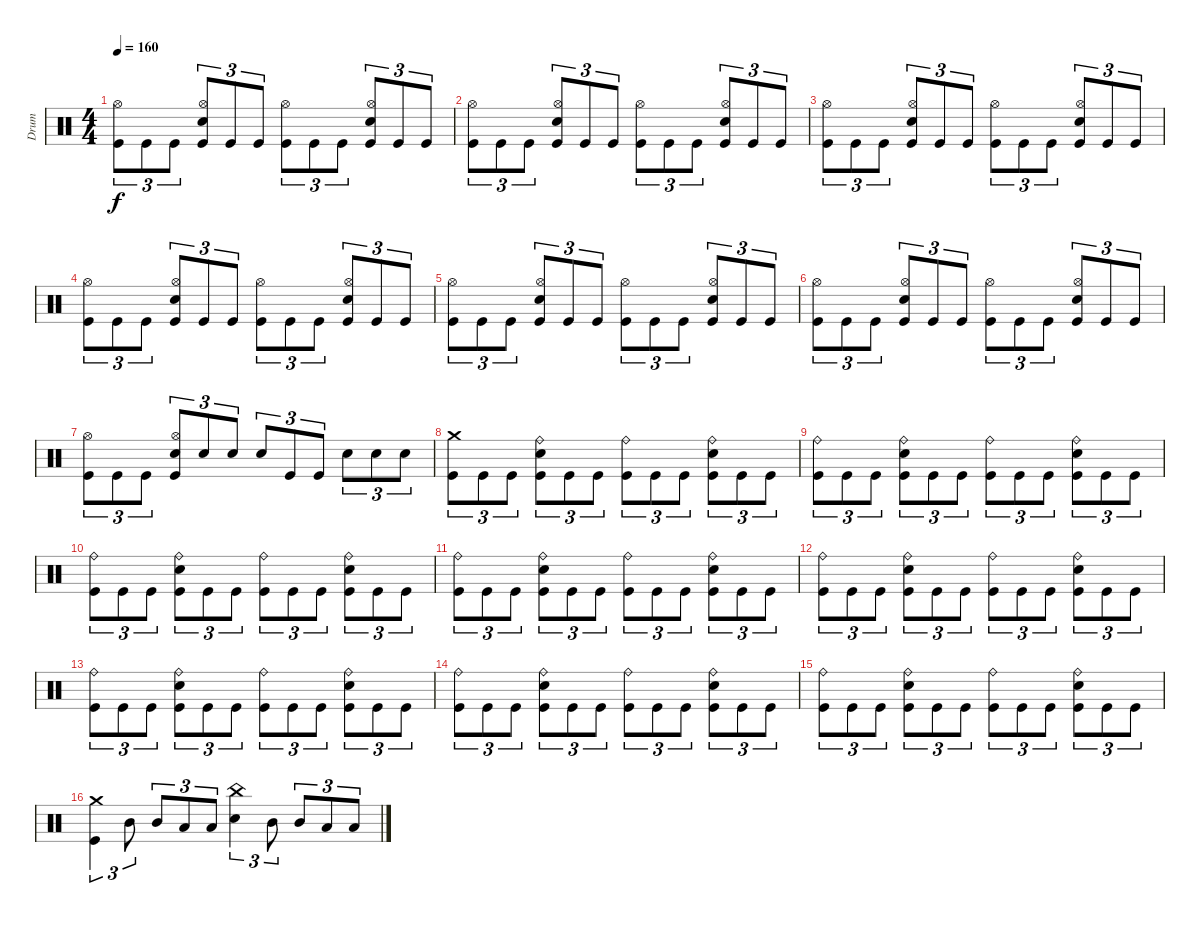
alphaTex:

\track ("Drum" "Drum") {instrument percussion}
\staff {score}
\articulation defaults
\ts (4 4)
\tempo 160
\clef neutral
\ks c
("Kick (hit)" "Hi-Hat (open)").8{tu (3 2) dy f} "Kick (hit)".8{tu (3 2)} "Kick (hit)".8{tu (3 2)} ("Kick (hit)" "Electric Snare (hit)" "Hi-Hat (open)").8{tu (3 2)} "Kick (hit)".8{tu (3 2)} "Kick (hit)".8{tu (3 2)} ("Kick (hit)" "Hi-Hat (open)").8{tu (3 2)} "Kick (hit)".8{tu (3 2)} "Kick (hit)".8{tu (3 2)} ("Kick (hit)" "Electric Snare (hit)" "Hi-Hat (open)").8{tu (3 2)} "Kick (hit)".8{tu (3 2)} "Kick (hit)".8{tu (3 2)} |
("Kick (hit)" "Hi-Hat (open)").8{tu (3 2)} "Kick (hit)".8{tu (3 2)} "Kick (hit)".8{tu (3 2)} ("Kick (hit)" "Electric Snare (hit)" "Hi-Hat (open)").8{tu (3 2)} "Kick (hit)".8{tu (3 2)} "Kick (hit)".8{tu (3 2)} ("Kick (hit)" "Hi-Hat (open)").8{tu (3 2)} "Kick (hit)".8{tu (3 2)} "Kick (hit)".8{tu (3 2)} ("Kick (hit)" "Electric Snare (hit)" "Hi-Hat (open)").8{tu (3 2)} "Kick (hit)".8{tu (3 2)} "Kick (hit)".8{tu (3 2)} |
("Kick (hit)" "Hi-Hat (open)").8{tu (3 2)} "Kick (hit)".8{tu (3 2)} "Kick (hit)".8{tu (3 2)} ("Kick (hit)" "Electric Snare (hit)" "Hi-Hat (open)").8{tu (3 2)} "Kick (hit)".8{tu (3 2)} "Kick (hit)".8{tu (3 2)} ("Kick (hit)" "Hi-Hat (open)").8{tu (3 2)} "Kick (hit)".8{tu (3 2)} "Kick (hit)".8{tu (3 2)} ("Kick (hit)" "Electric Snare (hit)" "Hi-Hat (open)").8{tu (3 2)} "Kick (hit)".8{tu (3 2)} "Kick (hit)".8{tu (3 2)} |
("Kick (hit)" "Hi-Hat (open)").8{tu (3 2)} "Kick (hit)".8{tu (3 2)} "Kick (hit)".8{tu (3 2)} ("Kick (hit)" "Electric Snare (hit)" "Hi-Hat (open)").8{tu (3 2)} "Kick (hit)".8{tu (3 2)} "Kick (hit)".8{tu (3 2)} ("Kick (hit)" "Hi-Hat (open)").8{tu (3 2)} "Kick (hit)".8{tu (3 2)} "Kick (hit)".8{tu (3 2)} ("Kick (hit)" "Electric Snare (hit)" "Hi-Hat (open)").8{tu (3 2)} "Kick (hit)".8{tu (3 2)} "Kick (hit)".8{tu (3 2)} |
("Kick (hit)" "Hi-Hat (open)").8{tu (3 2)} "Kick (hit)".8{tu (3 2)} "Kick (hit)".8{tu (3 2)} ("Kick (hit)" "Electric Snare (hit)" "Hi-Hat (open)").8{tu (3 2)} "Kick (hit)".8{tu (3 2)} "Kick (hit)".8{tu (3 2)} ("Kick (hit)" "Hi-Hat (open)").8{tu (3 2)} "Kick (hit)".8{tu (3 2)} "Kick (hit)".8{tu (3 2)} ("Kick (hit)" "Electric Snare (hit)" "Hi-Hat (open)").8{tu (3 2)} "Kick (hit)".8{tu (3 2)} "Kick (hit)".8{tu (3 2)} |
("Kick (hit)" "Hi-Hat (open)").8{tu (3 2)} "Kick (hit)".8{tu (3 2)} "Kick (hit)".8{tu (3 2)} ("Kick (hit)" "Electric Snare (hit)" "Hi-Hat (open)").8{tu (3 2)} "Kick (hit)".8{tu (3 2)} "Kick (hit)".8{tu (3 2)} ("Kick (hit)" "Hi-Hat (open)").8{tu (3 2)} "Kick (hit)".8{tu (3 2)} "Kick (hit)".8{tu (3 2)} ("Kick (hit)" "Electric Snare (hit)" "Hi-Hat (open)").8{tu (3 2)} "Kick (hit)".8{tu (3 2)} "Kick (hit)".8{tu (3 2)} |
("Kick (hit)" "Hi-Hat (open)").8{tu (3 2)} "Kick (hit)".8{tu (3 2)} "Kick (hit)".8{tu (3 2)} ("Kick (hit)" "Electric Snare (hit)" "Hi-Hat (open)").8{tu (3 2)} "Electric Snare (hit)".8{tu (3 2)} "Electric Snare (hit)".8{tu (3 2)} "Electric Snare (hit)".8{tu (3 2)} "Kick (hit)".8{tu (3 2)} "Kick (hit)".8{tu (3 2)} "Electric Snare (hit)".8{tu (3 2)} "Electric Snare (hit)".8{tu (3 2)} "Electric Snare (hit)".8{tu (3 2)} |
("Kick (hit)" "Crash medium (hit)").8{tu (3 2)} "Kick (hit)".8{tu (3 2)} "Kick (hit)".8{tu (3 2)} ("Kick (hit)" "Electric Snare (hit)" "Ride (bell)").8{tu (3 2)} "Kick (hit)".8{tu (3 2)} "Kick (hit)".8{tu (3 2)} ("Kick (hit)" "Ride (bell)").8{tu (3 2)} "Kick (hit)".8{tu (3 2)} "Kick (hit)".8{tu (3 2)} ("Kick (hit)" "Electric Snare (hit)" "Ride (bell)").8{tu (3 2)} "Kick (hit)".8{tu (3 2)} "Kick (hit)".8{tu (3 2)} |
("Kick (hit)" "Ride (bell)").8{tu (3 2)} "Kick (hit)".8{tu (3 2)} "Kick (hit)".8{tu (3 2)} ("Kick (hit)" "Electric Snare (hit)" "Ride (bell)").8{tu (3 2)} "Kick (hit)".8{tu (3 2)} "Kick (hit)".8{tu (3 2)} ("Kick (hit)" "Ride (bell)").8{tu (3 2)} "Kick (hit)".8{tu (3 2)} "Kick (hit)".8{tu (3 2)} ("Kick (hit)" "Electric Snare (hit)" "Ride (bell)").8{tu (3 2)} "Kick (hit)".8{tu (3 2)} "Kick (hit)".8{tu (3 2)} |
("Kick (hit)" "Ride (bell)").8{tu (3 2)} "Kick (hit)".8{tu (3 2)} "Kick (hit)".8{tu (3 2)} ("Kick (hit)" "Electric Snare (hit)" "Ride (bell)").8{tu (3 2)} "Kick (hit)".8{tu (3 2)} "Kick (hit)".8{tu (3 2)} ("Kick (hit)" "Ride (bell)").8{tu (3 2)} "Kick (hit)".8{tu (3 2)} "Kick (hit)".8{tu (3 2)} ("Kick (hit)" "Electric Snare (hit)" "Ride (bell)").8{tu (3 2)} "Kick (hit)".8{tu (3 2)} "Kick (hit)".8{tu (3 2)} |
("Kick (hit)" "Ride (bell)").8{tu (3 2)} "Kick (hit)".8{tu (3 2)} "Kick (hit)".8{tu (3 2)} ("Kick (hit)" "Electric Snare (hit)" "Ride (bell)").8{tu (3 2)} "Kick (hit)".8{tu (3 2)} "Kick (hit)".8{tu (3 2)} ("Kick (hit)" "Ride (bell)").8{tu (3 2)} "Kick (hit)".8{tu (3 2)} "Kick (hit)".8{tu (3 2)} ("Kick (hit)" "Electric Snare (hit)" "Ride (bell)").8{tu (3 2)} "Kick (hit)".8{tu (3 2)} "Kick (hit)".8{tu (3 2)} |
("Kick (hit)" "Ride (bell)").8{tu (3 2)} "Kick (hit)".8{tu (3 2)} "Kick (hit)".8{tu (3 2)} ("Kick (hit)" "Electric Snare (hit)" "Ride (bell)").8{tu (3 2)} "Kick (hit)".8{tu (3 2)} "Kick (hit)".8{tu (3 2)} ("Kick (hit)" "Ride (bell)").8{tu (3 2)} "Kick (hit)".8{tu (3 2)} "Kick (hit)".8{tu (3 2)} ("Kick (hit)" "Electric Snare (hit)" "Ride (bell)").8{tu (3 2)} "Kick (hit)".8{tu (3 2)} "Kick (hit)".8{tu (3 2)} |
("Kick (hit)" "Ride (bell)").8{tu (3 2)} "Kick (hit)".8{tu (3 2)} "Kick (hit)".8{tu (3 2)} ("Kick (hit)" "Electric Snare (hit)" "Ride (bell)").8{tu (3 2)} "Kick (hit)".8{tu (3 2)} "Kick (hit)".8{tu (3 2)} ("Kick (hit)" "Ride (bell)").8{tu (3 2)} "Kick (hit)".8{tu (3 2)} "Kick (hit)".8{tu (3 2)} ("Kick (hit)" "Electric Snare (hit)" "Ride (bell)").8{tu (3 2)} "Kick (hit)".8{tu (3 2)} "Kick (hit)".8{tu (3 2)} |
("Kick (hit)" "Ride (bell)").8{tu (3 2)} "Kick (hit)".8{tu (3 2)} "Kick (hit)".8{tu (3 2)} ("Kick (hit)" "Electric Snare (hit)" "Ride (bell)").8{tu (3 2)} "Kick (hit)".8{tu (3 2)} "Kick (hit)".8{tu (3 2)} ("Kick (hit)" "Ride (bell)").8{tu (3 2)} "Kick (hit)".8{tu (3 2)} "Kick (hit)".8{tu (3 2)} ("Kick (hit)" "Electric Snare (hit)" "Ride (bell)").8{tu (3 2)} "Kick (hit)".8{tu (3 2)} "Kick (hit)".8{tu (3 2)} |
("Kick (hit)" "Ride (bell)").8{tu (3 2)} "Kick (hit)".8{tu (3 2)} "Kick (hit)".8{tu (3 2)} ("Kick (hit)" "Electric Snare (hit)" "Ride (bell)").8{tu (3 2)} "Kick (hit)".8{tu (3 2)} "Kick (hit)".8{tu (3 2)} ("Kick (hit)" "Ride (bell)").8{tu (3 2)} "Kick (hit)".8{tu (3 2)} "Kick (hit)".8{tu (3 2)} ("Kick (hit)" "Electric Snare (hit)" "Ride (bell)").8{tu (3 2)} "Kick (hit)".8{tu (3 2)} "Kick (hit)".8{tu (3 2)} |
("Kick (hit)" "Crash medium (hit)").4{tu (3 2)} "Mid Tom (hit)".8{tu (3 2)} "Mid Tom (hit)".8{tu (3 2)} "Low Tom (hit)".8{tu (3 2)} "Low Tom (hit)".8{tu (3 2)} ("Electric Snare (hit)" "China (hit)").4{tu (3 2)} "Mid Tom (hit)".8{tu (3 2)} "Mid Tom (hit)".8{tu (3 2)} "Low Tom (hit)".8{tu (3 2)} "Low Tom (hit)".8{tu (3 2)}
